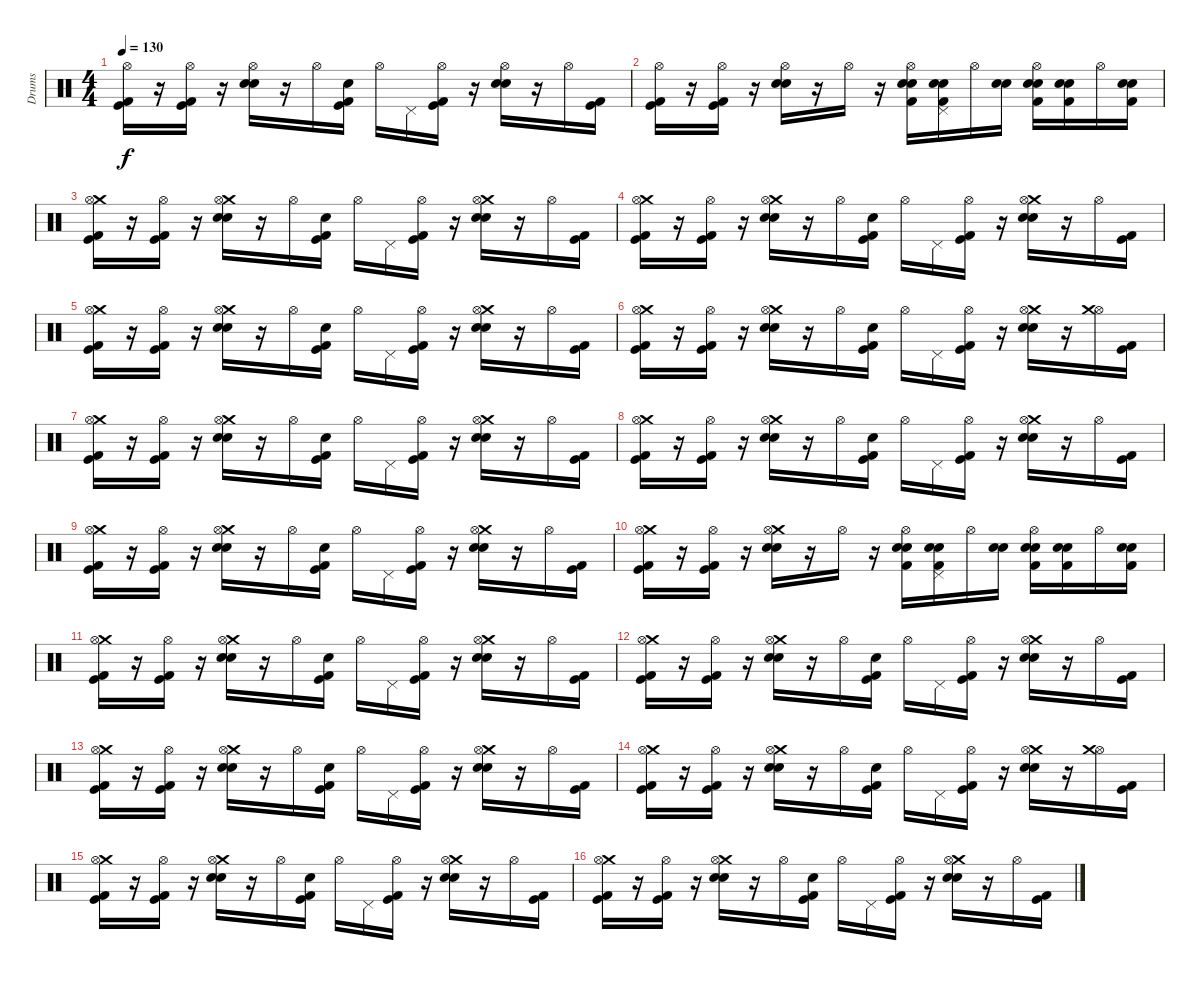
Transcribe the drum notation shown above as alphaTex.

\track ("Drums" "Drums") {instrument percussion}
\staff {score}
\articulation defaults
\ts (4 4)
\tempo 130
\clef neutral
\ks c
("Kick (hit) 2" "Kick (hit)" "Hi-Hat (open)").16{dy f} r.16 ("Kick (hit) 2" "Kick (hit)" "Hi-Hat (open)").16 r.16 ("Snare (hit) 2" "Electric Snare (hit)" "Hi-Hat (open)").16 r.16 "Hi-Hat (open)".16 ("Kick (hit) 2" "Kick (hit)" "Electric Snare (hit)").16 "Hi-Hat (open)".16 "Pedal Hi-Hat (hit)".16 ("Kick (hit) 2" "Kick (hit)" "Hi-Hat (open)").16 r.16 ("Snare (hit) 2" "Electric Snare (hit)" "Hi-Hat (open)").16 r.16 "Hi-Hat (open)".16 ("Kick (hit) 2" "Kick (hit)").16 |
("Kick (hit) 2" "Kick (hit)" "Hi-Hat (open)").16 r.16 ("Kick (hit) 2" "Kick (hit)" "Hi-Hat (open)").16 r.16 ("Snare (hit) 2" "Electric Snare (hit)" "Hi-Hat (open)").16 r.16 "Hi-Hat (open)".16 r.16 ("Hi-Hat (open)" "Electric Snare (hit)" "Snare (hit) 2" "Kick (hit) 2").16 ("Electric Snare (hit)" "Snare (hit) 2" "Kick (hit) 2" "Pedal Hi-Hat (hit)").16 "Hi-Hat (open)".16 ("Electric Snare (hit)" "Electric Snare (hit)").16 ("Hi-Hat (open)" "Snare (hit) 2" "Electric Snare (hit)" "Kick (hit) 2").16 ("Electric Snare (hit)" "Snare (hit) 2" "Kick (hit) 2").16 "Hi-Hat (open)".16 ("Electric Snare (hit)" "Snare (hit) 2" "Kick (hit) 2").16 |
("Kick (hit) 2" "Kick (hit)" "Crash medium (hit)" "Hi-Hat (open)").16 r.16 ("Kick (hit) 2" "Kick (hit)" "Hi-Hat (open)").16 r.16 ("Snare (hit) 2" "Electric Snare (hit)" "Crash medium (hit)" "Hi-Hat (open)").16 r.16 "Hi-Hat (open)".16 ("Kick (hit) 2" "Kick (hit)" "Electric Snare (hit)").16 "Hi-Hat (open)".16 "Pedal Hi-Hat (hit)".16 ("Kick (hit) 2" "Kick (hit)" "Hi-Hat (open)").16 r.16 ("Snare (hit) 2" "Electric Snare (hit)" "Crash medium (hit)" "Hi-Hat (open)").16 r.16 "Hi-Hat (open)".16 ("Kick (hit) 2" "Kick (hit)").16 |
("Kick (hit) 2" "Kick (hit)" "Crash medium (hit)" "Hi-Hat (open)").16 r.16 ("Kick (hit) 2" "Kick (hit)" "Hi-Hat (open)").16 r.16 ("Snare (hit) 2" "Electric Snare (hit)" "Crash medium (hit)" "Hi-Hat (open)").16 r.16 "Hi-Hat (open)".16 ("Kick (hit) 2" "Kick (hit)" "Electric Snare (hit)").16 "Hi-Hat (open)".16 "Pedal Hi-Hat (hit)".16 ("Kick (hit) 2" "Kick (hit)" "Hi-Hat (open)").16 r.16 ("Snare (hit) 2" "Electric Snare (hit)" "Crash medium (hit)" "Hi-Hat (open)").16 r.16 "Hi-Hat (open)".16 ("Kick (hit) 2" "Kick (hit)").16 |
("Kick (hit) 2" "Kick (hit)" "Crash medium (hit)" "Hi-Hat (open)").16 r.16 ("Kick (hit) 2" "Kick (hit)" "Hi-Hat (open)").16 r.16 ("Snare (hit) 2" "Electric Snare (hit)" "Crash medium (hit)" "Hi-Hat (open)").16 r.16 "Hi-Hat (open)".16 ("Kick (hit) 2" "Kick (hit)" "Electric Snare (hit)").16 "Hi-Hat (open)".16 "Pedal Hi-Hat (hit)".16 ("Kick (hit) 2" "Kick (hit)" "Hi-Hat (open)").16 r.16 ("Snare (hit) 2" "Electric Snare (hit)" "Crash medium (hit)" "Hi-Hat (open)").16 r.16 "Hi-Hat (open)".16 ("Kick (hit) 2" "Kick (hit)").16 |
("Kick (hit) 2" "Kick (hit)" "Crash medium (hit)" "Hi-Hat (open)").16 r.16 ("Kick (hit) 2" "Kick (hit)" "Hi-Hat (open)").16 r.16 ("Snare (hit) 2" "Electric Snare (hit)" "Crash medium (hit)" "Hi-Hat (open)").16 r.16 "Hi-Hat (open)".16 ("Kick (hit) 2" "Kick (hit)" "Electric Snare (hit)").16 "Hi-Hat (open)".16 "Pedal Hi-Hat (hit)".16 ("Kick (hit) 2" "Kick (hit)" "Hi-Hat (open)").16 r.16 ("Snare (hit) 2" "Electric Snare (hit)" "Crash medium (hit)" "Hi-Hat (open)").16 r.16 ("Hi-Hat (open)" "Crash medium (hit)").16 ("Kick (hit) 2" "Kick (hit)").16 |
("Kick (hit) 2" "Kick (hit)" "Crash medium (hit)" "Hi-Hat (open)").16 r.16 ("Kick (hit) 2" "Kick (hit)" "Hi-Hat (open)").16 r.16 ("Snare (hit) 2" "Electric Snare (hit)" "Crash medium (hit)" "Hi-Hat (open)").16 r.16 "Hi-Hat (open)".16 ("Kick (hit) 2" "Kick (hit)" "Electric Snare (hit)").16 "Hi-Hat (open)".16 "Pedal Hi-Hat (hit)".16 ("Kick (hit) 2" "Kick (hit)" "Hi-Hat (open)").16 r.16 ("Snare (hit) 2" "Electric Snare (hit)" "Crash medium (hit)" "Hi-Hat (open)").16 r.16 "Hi-Hat (open)".16 ("Kick (hit) 2" "Kick (hit)").16 |
("Kick (hit) 2" "Kick (hit)" "Crash medium (hit)" "Hi-Hat (open)").16 r.16 ("Kick (hit) 2" "Kick (hit)" "Hi-Hat (open)").16 r.16 ("Snare (hit) 2" "Electric Snare (hit)" "Crash medium (hit)" "Hi-Hat (open)").16 r.16 "Hi-Hat (open)".16 ("Kick (hit) 2" "Kick (hit)" "Electric Snare (hit)").16 "Hi-Hat (open)".16 "Pedal Hi-Hat (hit)".16 ("Kick (hit) 2" "Kick (hit)" "Hi-Hat (open)").16 r.16 ("Snare (hit) 2" "Electric Snare (hit)" "Crash medium (hit)" "Hi-Hat (open)").16 r.16 "Hi-Hat (open)".16 ("Kick (hit) 2" "Kick (hit)").16 |
("Kick (hit) 2" "Kick (hit)" "Crash medium (hit)" "Hi-Hat (open)").16 r.16 ("Kick (hit) 2" "Kick (hit)" "Hi-Hat (open)").16 r.16 ("Snare (hit) 2" "Electric Snare (hit)" "Crash medium (hit)" "Hi-Hat (open)").16 r.16 "Hi-Hat (open)".16 ("Kick (hit) 2" "Kick (hit)" "Electric Snare (hit)").16 "Hi-Hat (open)".16 "Pedal Hi-Hat (hit)".16 ("Kick (hit) 2" "Kick (hit)" "Hi-Hat (open)").16 r.16 ("Snare (hit) 2" "Electric Snare (hit)" "Crash medium (hit)" "Hi-Hat (open)").16 r.16 "Hi-Hat (open)".16 ("Kick (hit) 2" "Kick (hit)").16 |
("Kick (hit) 2" "Kick (hit)" "Crash medium (hit)" "Hi-Hat (open)").16 r.16 ("Kick (hit) 2" "Kick (hit)" "Hi-Hat (open)").16 r.16 ("Snare (hit) 2" "Electric Snare (hit)" "Crash medium (hit)" "Hi-Hat (open)").16 r.16 "Hi-Hat (open)".16 r.16 ("Hi-Hat (open)" "Electric Snare (hit)" "Snare (hit) 2" "Kick (hit) 2").16 ("Electric Snare (hit)" "Snare (hit) 2" "Kick (hit) 2" "Pedal Hi-Hat (hit)").16 "Hi-Hat (open)".16 ("Electric Snare (hit)" "Electric Snare (hit)").16 ("Hi-Hat (open)" "Snare (hit) 2" "Electric Snare (hit)" "Kick (hit) 2").16 ("Electric Snare (hit)" "Snare (hit) 2" "Kick (hit) 2").16 "Hi-Hat (open)".16 ("Electric Snare (hit)" "Snare (hit) 2" "Kick (hit) 2").16 |
("Kick (hit) 2" "Kick (hit)" "Crash medium (hit)" "Hi-Hat (open)").16 r.16 ("Kick (hit) 2" "Kick (hit)" "Hi-Hat (open)").16 r.16 ("Snare (hit) 2" "Electric Snare (hit)" "Crash medium (hit)" "Hi-Hat (open)").16 r.16 "Hi-Hat (open)".16 ("Kick (hit) 2" "Kick (hit)" "Electric Snare (hit)").16 "Hi-Hat (open)".16 "Pedal Hi-Hat (hit)".16 ("Kick (hit) 2" "Kick (hit)" "Hi-Hat (open)").16 r.16 ("Snare (hit) 2" "Electric Snare (hit)" "Crash medium (hit)" "Hi-Hat (open)").16 r.16 "Hi-Hat (open)".16 ("Kick (hit) 2" "Kick (hit)").16 |
("Kick (hit) 2" "Kick (hit)" "Crash medium (hit)" "Hi-Hat (open)").16 r.16 ("Kick (hit) 2" "Kick (hit)" "Hi-Hat (open)").16 r.16 ("Snare (hit) 2" "Electric Snare (hit)" "Crash medium (hit)" "Hi-Hat (open)").16 r.16 "Hi-Hat (open)".16 ("Kick (hit) 2" "Kick (hit)" "Electric Snare (hit)").16 "Hi-Hat (open)".16 "Pedal Hi-Hat (hit)".16 ("Kick (hit) 2" "Kick (hit)" "Hi-Hat (open)").16 r.16 ("Snare (hit) 2" "Electric Snare (hit)" "Crash medium (hit)" "Hi-Hat (open)").16 r.16 "Hi-Hat (open)".16 ("Kick (hit) 2" "Kick (hit)").16 |
("Kick (hit) 2" "Kick (hit)" "Crash medium (hit)" "Hi-Hat (open)").16 r.16 ("Kick (hit) 2" "Kick (hit)" "Hi-Hat (open)").16 r.16 ("Snare (hit) 2" "Electric Snare (hit)" "Crash medium (hit)" "Hi-Hat (open)").16 r.16 "Hi-Hat (open)".16 ("Kick (hit) 2" "Kick (hit)" "Electric Snare (hit)").16 "Hi-Hat (open)".16 "Pedal Hi-Hat (hit)".16 ("Kick (hit) 2" "Kick (hit)" "Hi-Hat (open)").16 r.16 ("Snare (hit) 2" "Electric Snare (hit)" "Crash medium (hit)" "Hi-Hat (open)").16 r.16 "Hi-Hat (open)".16 ("Kick (hit) 2" "Kick (hit)").16 |
("Kick (hit) 2" "Kick (hit)" "Crash medium (hit)" "Hi-Hat (open)").16 r.16 ("Kick (hit) 2" "Kick (hit)" "Hi-Hat (open)").16 r.16 ("Snare (hit) 2" "Electric Snare (hit)" "Crash medium (hit)" "Hi-Hat (open)").16 r.16 "Hi-Hat (open)".16 ("Kick (hit) 2" "Kick (hit)" "Electric Snare (hit)").16 "Hi-Hat (open)".16 "Pedal Hi-Hat (hit)".16 ("Kick (hit) 2" "Kick (hit)" "Hi-Hat (open)").16 r.16 ("Snare (hit) 2" "Electric Snare (hit)" "Crash medium (hit)" "Hi-Hat (open)").16 r.16 ("Hi-Hat (open)" "Crash medium (hit)").16 ("Kick (hit) 2" "Kick (hit)").16 |
("Kick (hit) 2" "Kick (hit)" "Crash medium (hit)" "Hi-Hat (open)").16 r.16 ("Kick (hit) 2" "Kick (hit)" "Hi-Hat (open)").16 r.16 ("Snare (hit) 2" "Electric Snare (hit)" "Crash medium (hit)" "Hi-Hat (open)").16 r.16 "Hi-Hat (open)".16 ("Kick (hit) 2" "Kick (hit)" "Electric Snare (hit)").16 "Hi-Hat (open)".16 "Pedal Hi-Hat (hit)".16 ("Kick (hit) 2" "Kick (hit)" "Hi-Hat (open)").16 r.16 ("Snare (hit) 2" "Electric Snare (hit)" "Crash medium (hit)" "Hi-Hat (open)").16 r.16 "Hi-Hat (open)".16 ("Kick (hit) 2" "Kick (hit)").16 |
("Kick (hit) 2" "Kick (hit)" "Crash medium (hit)" "Hi-Hat (open)").16 r.16 ("Kick (hit) 2" "Kick (hit)" "Hi-Hat (open)").16 r.16 ("Snare (hit) 2" "Electric Snare (hit)" "Crash medium (hit)" "Hi-Hat (open)").16 r.16 "Hi-Hat (open)".16 ("Kick (hit) 2" "Kick (hit)" "Electric Snare (hit)").16 "Hi-Hat (open)".16 "Pedal Hi-Hat (hit)".16 ("Kick (hit) 2" "Kick (hit)" "Hi-Hat (open)").16 r.16 ("Snare (hit) 2" "Electric Snare (hit)" "Crash medium (hit)" "Hi-Hat (open)").16 r.16 "Hi-Hat (open)".16 ("Kick (hit) 2" "Kick (hit)").16
